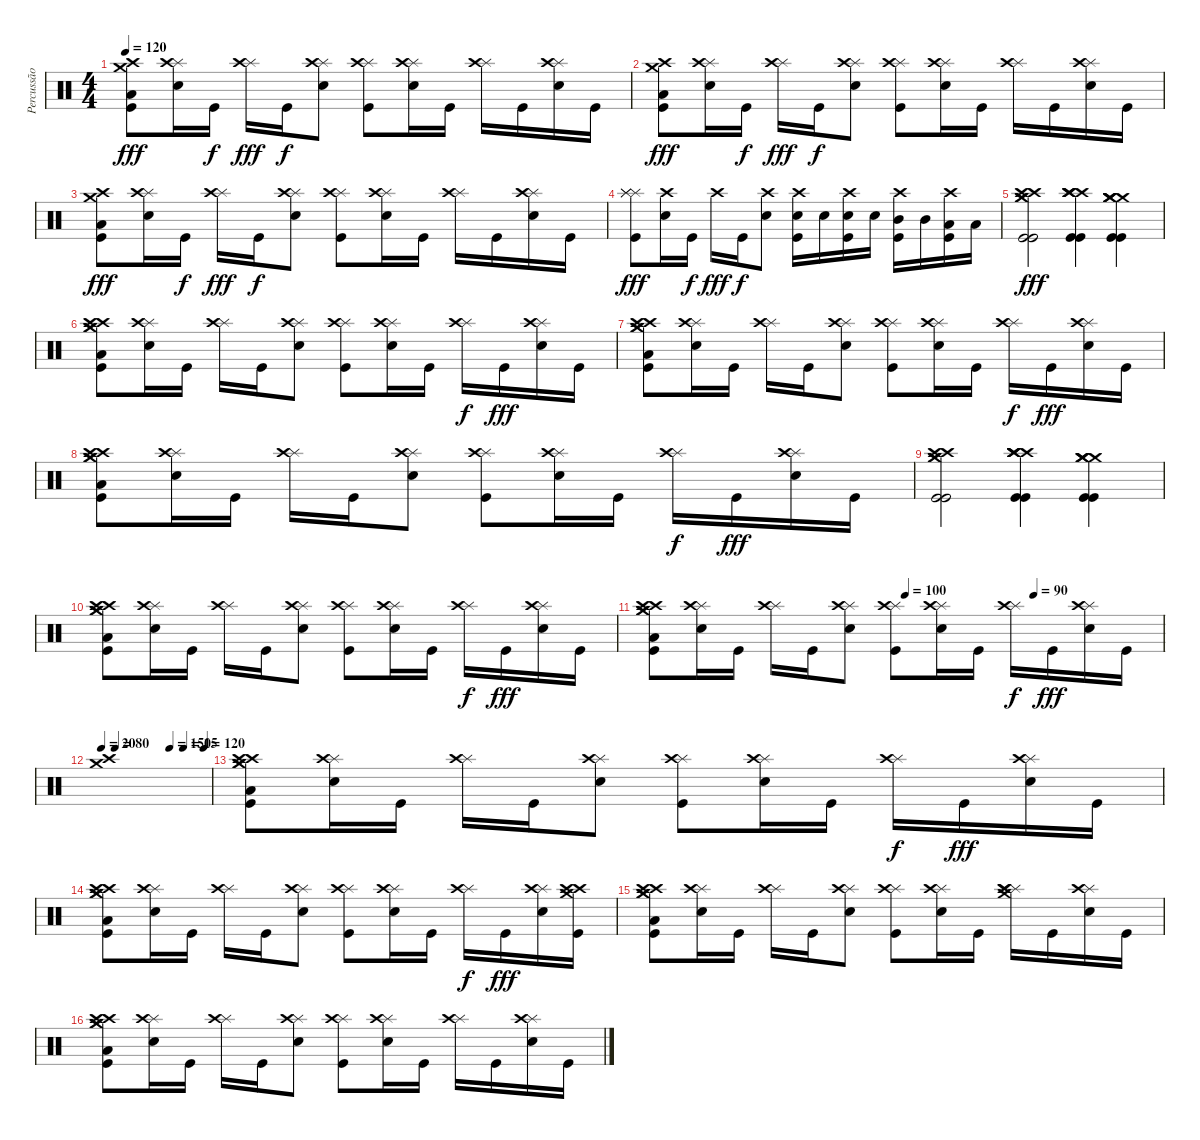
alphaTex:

\track ("Percussão" "Percussão") {instrument percussion}
\staff {score}
\articulation defaults
\ts (4 4)
\tempo 120
\clef neutral
\ks c
("Crash high (hit)" "Crash medium (hit)" "Low Floor Tom (hit)" "Kick (hit)").8{dy fff} ("Splash (hit)" "Crash high (hit)" "Snare (hit) 2").16 "Kick (hit)".16{dy f} ("Splash (hit)" "Crash high (hit)").16{dy fff} "Kick (hit)".16{dy f} ("Splash (hit)" "Crash high (hit)" "Snare (hit) 2").8 ("Splash (hit)" "Crash high (hit)" "Kick (hit)").8 ("Splash (hit)" "Crash high (hit)" "Snare (hit) 2").16 "Kick (hit)".16 ("Splash (hit)" "Crash high (hit)").16 "Kick (hit)".16 ("Splash (hit)" "Crash high (hit)" "Snare (hit) 2").16 "Kick (hit)".16 |
("Crash high (hit)" "Crash medium (hit)" "Low Floor Tom (hit)" "Kick (hit)").8{dy fff} ("Splash (hit)" "Crash high (hit)" "Snare (hit) 2").16 "Kick (hit)".16{dy f} ("Splash (hit)" "Crash high (hit)").16{dy fff} "Kick (hit)".16{dy f} ("Splash (hit)" "Crash high (hit)" "Snare (hit) 2").8 ("Splash (hit)" "Crash high (hit)" "Kick (hit)").8 ("Splash (hit)" "Crash high (hit)" "Snare (hit) 2").16 "Kick (hit)".16 ("Splash (hit)" "Crash high (hit)").16 "Kick (hit)".16 ("Splash (hit)" "Crash high (hit)" "Snare (hit) 2").16 "Kick (hit)".16 |
("Crash high (hit)" "Crash medium (hit)" "Low Floor Tom (hit)" "Kick (hit)").8{dy fff} ("Splash (hit)" "Crash high (hit)" "Snare (hit) 2").16 "Kick (hit)".16{dy f} ("Splash (hit)" "Crash high (hit)").16{dy fff} "Kick (hit)".16{dy f} ("Splash (hit)" "Crash high (hit)" "Snare (hit) 2").8 ("Splash (hit)" "Crash high (hit)" "Kick (hit)").8 ("Splash (hit)" "Crash high (hit)" "Snare (hit) 2").16 "Kick (hit)".16 ("Splash (hit)" "Crash high (hit)").16 "Kick (hit)".16 ("Splash (hit)" "Crash high (hit)" "Snare (hit) 2").16 "Kick (hit)".16 |
("Splash (hit)" "Splash (hit)" "Splash (hit)" "Kick (hit)").8{dy fff} ("Crash high (hit)" "Snare (hit) 2").16 "Kick (hit)".16{dy f} "Crash high (hit)".16{dy fff} "Kick (hit)".16{dy f} ("Crash high (hit)" "Snare (hit) 2").8 ("Crash high (hit)" "Snare (hit) 2" "Kick (hit)").16 "Snare (hit) 2".16 ("Crash high (hit)" "Snare (hit) 2" "Kick (hit)").16 "Snare (hit) 2".16 ("Crash high (hit)" "Mid Tom (hit)" "Kick (hit)").16 "Mid Tom (hit)".16 ("Crash high (hit)" "Low Tom (hit)" "Kick (hit)").16 "Low Tom (hit)".16 |
("Crash high (hit)" "Crash high (hit)" "Crash medium (hit)" "Crash medium (hit)" "Kick (hit)" "Kick (hit)").2{dy fff} ("Crash high (hit)" "Crash high (hit)" "Crash high (hit)" "Crash high (hit)" "Kick (hit)" "Kick (hit)").4 ("Crash medium (hit)" "Crash medium (hit)" "Crash medium (hit)" "Crash medium (hit)" "Kick (hit)" "Kick (hit)").4 |
("Crash high (hit)" "Crash high (hit)" "Crash medium (hit)" "Crash medium (hit)" "Low Floor Tom (hit)" "Kick (hit)").8 ("Splash (hit)" "Crash high (hit)" "Snare (hit) 2").16 "Kick (hit)".16 ("Splash (hit)" "Crash high (hit)").16 "Kick (hit)".16 ("Splash (hit)" "Crash high (hit)" "Snare (hit) 2").8 ("Splash (hit)" "Crash high (hit)" "Kick (hit)").8 ("Splash (hit)" "Crash high (hit)" "Snare (hit) 2").16 "Kick (hit)".16 ("Splash (hit)" "Crash high (hit)").16{dy f} "Kick (hit)".16{dy fff} ("Splash (hit)" "Crash high (hit)" "Snare (hit) 2").16 "Kick (hit)".16 |
("Crash high (hit)" "Crash high (hit)" "Crash medium (hit)" "Crash medium (hit)" "Low Floor Tom (hit)" "Kick (hit)").8 ("Splash (hit)" "Crash high (hit)" "Snare (hit) 2").16 "Kick (hit)".16 ("Splash (hit)" "Crash high (hit)").16 "Kick (hit)".16 ("Splash (hit)" "Crash high (hit)" "Snare (hit) 2").8 ("Splash (hit)" "Crash high (hit)" "Kick (hit)").8 ("Splash (hit)" "Crash high (hit)" "Snare (hit) 2").16 "Kick (hit)".16 ("Splash (hit)" "Crash high (hit)").16{dy f} "Kick (hit)".16{dy fff} ("Splash (hit)" "Crash high (hit)" "Snare (hit) 2").16 "Kick (hit)".16 |
("Crash high (hit)" "Crash high (hit)" "Crash medium (hit)" "Crash medium (hit)" "Low Floor Tom (hit)" "Kick (hit)").8 ("Splash (hit)" "Crash high (hit)" "Snare (hit) 2").16 "Kick (hit)".16 ("Splash (hit)" "Crash high (hit)").16 "Kick (hit)".16 ("Splash (hit)" "Crash high (hit)" "Snare (hit) 2").8 ("Splash (hit)" "Crash high (hit)" "Kick (hit)").8 ("Splash (hit)" "Crash high (hit)" "Snare (hit) 2").16 "Kick (hit)".16 ("Splash (hit)" "Crash high (hit)").16{dy f} "Kick (hit)".16{dy fff} ("Splash (hit)" "Crash high (hit)" "Snare (hit) 2").16 "Kick (hit)".16 |
("Crash high (hit)" "Crash high (hit)" "Crash medium (hit)" "Crash medium (hit)" "Kick (hit)" "Kick (hit)").2 ("Crash high (hit)" "Crash high (hit)" "Crash high (hit)" "Crash high (hit)" "Kick (hit)" "Kick (hit)").4 ("Crash medium (hit)" "Crash medium (hit)" "Crash medium (hit)" "Crash medium (hit)" "Kick (hit)" "Kick (hit)").4 |
("Crash high (hit)" "Crash high (hit)" "Crash medium (hit)" "Crash medium (hit)" "Low Floor Tom (hit)" "Kick (hit)").8 ("Splash (hit)" "Crash high (hit)" "Snare (hit) 2").16 "Kick (hit)".16 ("Splash (hit)" "Crash high (hit)").16 "Kick (hit)".16 ("Splash (hit)" "Crash high (hit)" "Snare (hit) 2").8 ("Splash (hit)" "Crash high (hit)" "Kick (hit)").8 ("Splash (hit)" "Crash high (hit)" "Snare (hit) 2").16 "Kick (hit)".16 ("Splash (hit)" "Crash high (hit)").16{dy f} "Kick (hit)".16{dy fff} ("Splash (hit)" "Crash high (hit)" "Snare (hit) 2").16 "Kick (hit)".16 |
\tempo (100 0.5)
\tempo (90 0.75)
("Crash high (hit)" "Crash high (hit)" "Crash medium (hit)" "Crash medium (hit)" "Low Floor Tom (hit)" "Kick (hit)").8 ("Splash (hit)" "Crash high (hit)" "Snare (hit) 2").16 "Kick (hit)".16 ("Splash (hit)" "Crash high (hit)").16 "Kick (hit)".16 ("Splash (hit)" "Crash high (hit)" "Snare (hit) 2").8 ("Splash (hit)" "Crash high (hit)" "Kick (hit)").8 ("Splash (hit)" "Crash high (hit)" "Snare (hit) 2").16 "Kick (hit)".16 ("Splash (hit)" "Crash high (hit)").16{dy f} "Kick (hit)".16{dy fff} ("Splash (hit)" "Crash high (hit)" "Snare (hit) 2").16 "Kick (hit)".16 |
\tempo 20
\tempo (80 0.125)
\tempo (150 0.625)
\tempo (15 0.75)
\tempo (120 0.9375)
("Crash high (hit)" "Crash medium (hit)").1 |
("Crash high (hit)" "Crash high (hit)" "Crash medium (hit)" "Crash medium (hit)" "Low Floor Tom (hit)" "Kick (hit)").8 ("Splash (hit)" "Crash high (hit)" "Snare (hit) 2").16 "Kick (hit)".16 ("Splash (hit)" "Crash high (hit)").16 "Kick (hit)".16 ("Splash (hit)" "Crash high (hit)" "Snare (hit) 2").8 ("Splash (hit)" "Crash high (hit)" "Kick (hit)").8 ("Splash (hit)" "Crash high (hit)" "Snare (hit) 2").16 "Kick (hit)".16 ("Splash (hit)" "Crash high (hit)").16{dy f} "Kick (hit)".16{dy fff} ("Splash (hit)" "Crash high (hit)" "Snare (hit) 2").16 "Kick (hit)".16 |
("Crash high (hit)" "Crash high (hit)" "Crash medium (hit)" "Crash medium (hit)" "Low Floor Tom (hit)" "Kick (hit)").8 ("Splash (hit)" "Crash high (hit)" "Snare (hit) 2").16 "Kick (hit)".16 ("Splash (hit)" "Crash high (hit)").16 "Kick (hit)".16 ("Splash (hit)" "Crash high (hit)" "Snare (hit) 2").8 ("Splash (hit)" "Crash high (hit)" "Kick (hit)").8 ("Splash (hit)" "Crash high (hit)" "Snare (hit) 2").16 "Kick (hit)".16 ("Splash (hit)" "Crash high (hit)").16{dy f} "Kick (hit)".16{dy fff} ("Splash (hit)" "Crash high (hit)" "Snare (hit) 2").16 ("Crash high (hit)" "Crash high (hit)" "Crash medium (hit)" "Kick (hit)").16 |
("Crash high (hit)" "Crash high (hit)" "Crash medium (hit)" "Crash medium (hit)" "Low Floor Tom (hit)" "Kick (hit)").8 ("Splash (hit)" "Crash high (hit)" "Snare (hit) 2").16 "Kick (hit)".16 ("Splash (hit)" "Crash high (hit)").16 "Kick (hit)".16 ("Splash (hit)" "Crash high (hit)" "Snare (hit) 2").8 ("Splash (hit)" "Crash high (hit)" "Kick (hit)").8 ("Splash (hit)" "Crash high (hit)" "Snare (hit) 2").16 "Kick (hit)".16 ("Splash (hit)" "Crash high (hit)" "Crash high (hit)" "Crash medium (hit)").16 "Kick (hit)".16 ("Splash (hit)" "Crash high (hit)" "Snare (hit) 2").16 "Kick (hit)".16 |
("Crash high (hit)" "Crash high (hit)" "Crash medium (hit)" "Crash medium (hit)" "Low Floor Tom (hit)" "Kick (hit)").8 ("Splash (hit)" "Crash high (hit)" "Snare (hit) 2").16 "Kick (hit)".16 ("Splash (hit)" "Crash high (hit)").16 "Kick (hit)".16 ("Splash (hit)" "Crash high (hit)" "Snare (hit) 2").8 ("Splash (hit)" "Crash high (hit)" "Kick (hit)").8 ("Splash (hit)" "Crash high (hit)" "Snare (hit) 2").16 "Kick (hit)".16 ("Splash (hit)" "Crash high (hit)").16 "Kick (hit)".16 ("Splash (hit)" "Crash high (hit)" "Snare (hit) 2").16 "Kick (hit)".16
